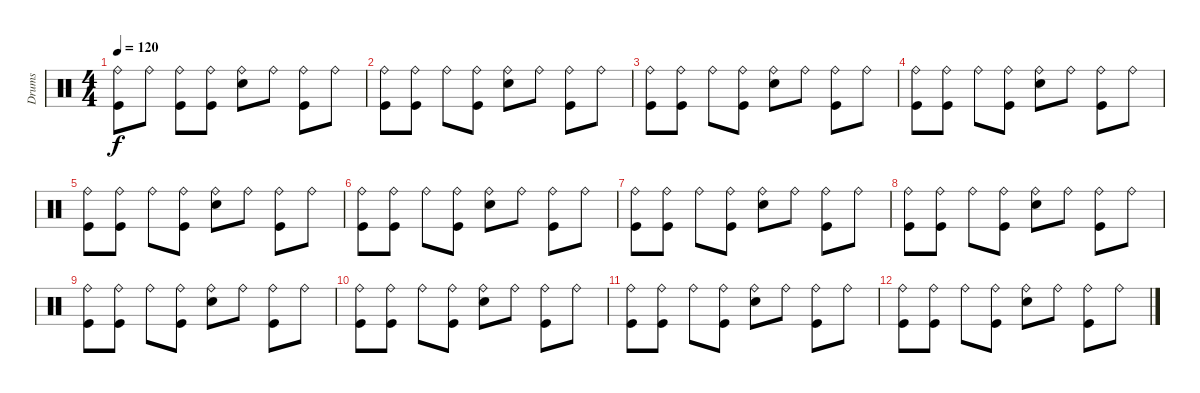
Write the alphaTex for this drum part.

\track ("Drums" "Drums") {instrument percussion}
\staff {score}
\articulation defaults
\ts (4 4)
\tempo 120
\clef neutral
\ks c
("Kick (hit)" "Ride (bell)").8{dy f} "Ride (bell)".8 ("Kick (hit)" "Ride (bell)").8 ("Kick (hit)" "Ride (bell)").8 ("Electric Snare (hit)" "Ride (bell)").8 "Ride (bell)".8 ("Kick (hit)" "Ride (bell)").8 "Ride (bell)".8 |
("Kick (hit)" "Ride (bell)").8 ("Kick (hit)" "Ride (bell)").8 "Ride (bell)".8 ("Kick (hit)" "Ride (bell)").8 ("Electric Snare (hit)" "Ride (bell)").8 "Ride (bell)".8 ("Kick (hit)" "Ride (bell)").8 "Ride (bell)".8 |
("Kick (hit)" "Ride (bell)").8 ("Kick (hit)" "Ride (bell)").8 "Ride (bell)".8 ("Kick (hit)" "Ride (bell)").8 ("Electric Snare (hit)" "Ride (bell)").8 "Ride (bell)".8 ("Kick (hit)" "Ride (bell)").8 "Ride (bell)".8 |
("Kick (hit)" "Ride (bell)").8 ("Kick (hit)" "Ride (bell)").8 "Ride (bell)".8 ("Kick (hit)" "Ride (bell)").8 ("Electric Snare (hit)" "Ride (bell)").8 "Ride (bell)".8 ("Kick (hit)" "Ride (bell)").8 "Ride (bell)".8 |
("Kick (hit)" "Ride (bell)").8 ("Kick (hit)" "Ride (bell)").8 "Ride (bell)".8 ("Kick (hit)" "Ride (bell)").8 ("Electric Snare (hit)" "Ride (bell)").8 "Ride (bell)".8 ("Kick (hit)" "Ride (bell)").8 "Ride (bell)".8 |
("Kick (hit)" "Ride (bell)").8 ("Kick (hit)" "Ride (bell)").8 "Ride (bell)".8 ("Kick (hit)" "Ride (bell)").8 ("Electric Snare (hit)" "Ride (bell)").8 "Ride (bell)".8 ("Kick (hit)" "Ride (bell)").8 "Ride (bell)".8 |
("Kick (hit)" "Ride (bell)").8 ("Kick (hit)" "Ride (bell)").8 "Ride (bell)".8 ("Kick (hit)" "Ride (bell)").8 ("Electric Snare (hit)" "Ride (bell)").8 "Ride (bell)".8 ("Kick (hit)" "Ride (bell)").8 "Ride (bell)".8 |
("Kick (hit)" "Ride (bell)").8 ("Kick (hit)" "Ride (bell)").8 "Ride (bell)".8 ("Kick (hit)" "Ride (bell)").8 ("Electric Snare (hit)" "Ride (bell)").8 "Ride (bell)".8 ("Kick (hit)" "Ride (bell)").8 "Ride (bell)".8 |
("Kick (hit)" "Ride (bell)").8 ("Kick (hit)" "Ride (bell)").8 "Ride (bell)".8 ("Kick (hit)" "Ride (bell)").8 ("Electric Snare (hit)" "Ride (bell)").8 "Ride (bell)".8 ("Kick (hit)" "Ride (bell)").8 "Ride (bell)".8 |
("Kick (hit)" "Ride (bell)").8 ("Kick (hit)" "Ride (bell)").8 "Ride (bell)".8 ("Kick (hit)" "Ride (bell)").8 ("Electric Snare (hit)" "Ride (bell)").8 "Ride (bell)".8 ("Kick (hit)" "Ride (bell)").8 "Ride (bell)".8 |
("Kick (hit)" "Ride (bell)").8 ("Kick (hit)" "Ride (bell)").8 "Ride (bell)".8 ("Kick (hit)" "Ride (bell)").8 ("Electric Snare (hit)" "Ride (bell)").8 "Ride (bell)".8 ("Kick (hit)" "Ride (bell)").8 "Ride (bell)".8 |
("Kick (hit)" "Ride (bell)").8 ("Kick (hit)" "Ride (bell)").8 "Ride (bell)".8 ("Kick (hit)" "Ride (bell)").8 ("Electric Snare (hit)" "Ride (bell)").8 "Ride (bell)".8 ("Kick (hit)" "Ride (bell)").8 "Ride (bell)".8
